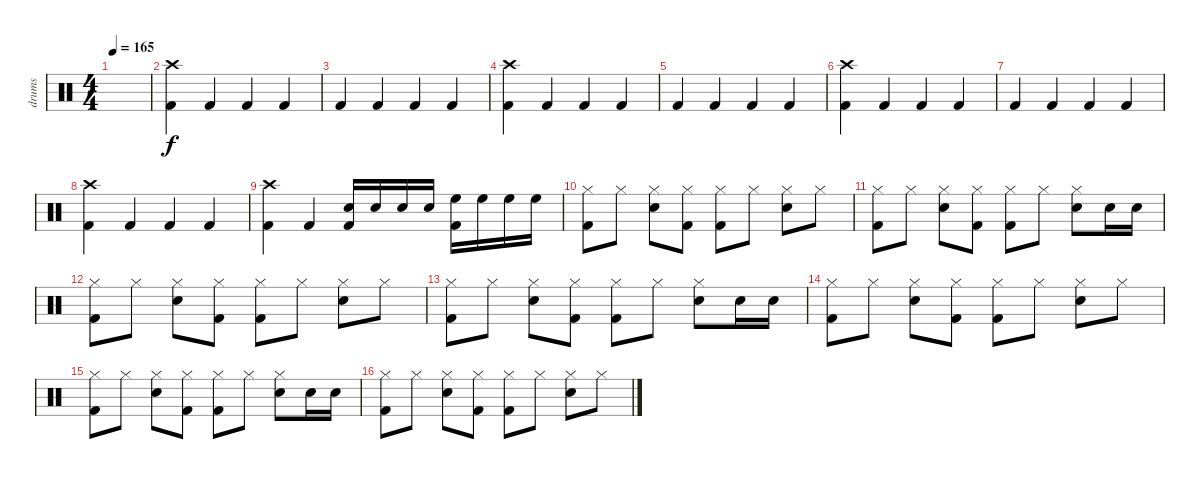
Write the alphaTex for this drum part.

\track ("drums" "drums") {instrument percussion}
\staff {score}
\articulation defaults
\ts (4 4)
\section ("" "")
\tempo 165
\clef neutral
\ks c
|
\section ("" "")
("Crash high (hit)" "Kick (hit) 2").4 "Kick (hit) 2".4 "Kick (hit) 2".4 "Kick (hit) 2".4 |
"Kick (hit) 2".4 "Kick (hit) 2".4 "Kick (hit) 2".4 "Kick (hit) 2".4 |
("Crash high (hit)" "Kick (hit) 2").4 "Kick (hit) 2".4 "Kick (hit) 2".4 "Kick (hit) 2".4 |
"Kick (hit) 2".4 "Kick (hit) 2".4 "Kick (hit) 2".4 "Kick (hit) 2".4 |
("Crash high (hit)" "Kick (hit) 2").4 "Kick (hit) 2".4 "Kick (hit) 2".4 "Kick (hit) 2".4 |
"Kick (hit) 2".4 "Kick (hit) 2".4 "Kick (hit) 2".4 "Kick (hit) 2".4 |
("Crash high (hit)" "Kick (hit) 2").4 "Kick (hit) 2".4 "Kick (hit) 2".4 "Kick (hit) 2".4 |
("Crash high (hit)" "Kick (hit) 2").4 "Kick (hit) 2".4 ("Snare (hit) 2" "Kick (hit) 2").16 "Snare (hit) 2".16 "Snare (hit) 2".16 "Snare (hit) 2".16 ("High Floor Tom (hit)" "Kick (hit) 2").16 "High Floor Tom (hit)".16 "High Floor Tom (hit)".16 "High Floor Tom (hit)".16 |
("Hi-Hat (closed)" "Kick (hit) 2").8 "Hi-Hat (closed)".8 ("Snare (hit) 2" "Hi-Hat (closed)").8 ("Hi-Hat (closed)" "Kick (hit) 2").8 ("Hi-Hat (closed)" "Kick (hit) 2").8 "Hi-Hat (closed)".8 ("Snare (hit) 2" "Hi-Hat (closed)").8 "Hi-Hat (closed)".8 |
("Hi-Hat (closed)" "Kick (hit) 2").8 "Hi-Hat (closed)".8 ("Snare (hit) 2" "Hi-Hat (closed)").8 ("Hi-Hat (closed)" "Kick (hit) 2").8 ("Hi-Hat (closed)" "Kick (hit) 2").8 "Hi-Hat (closed)".8 ("Snare (hit) 2" "Hi-Hat (closed)").8 "Snare (hit) 2".16 "Snare (hit) 2".16 |
("Hi-Hat (closed)" "Kick (hit) 2").8 "Hi-Hat (closed)".8 ("Snare (hit) 2" "Hi-Hat (closed)").8 ("Hi-Hat (closed)" "Kick (hit) 2").8 ("Hi-Hat (closed)" "Kick (hit) 2").8 "Hi-Hat (closed)".8 ("Snare (hit) 2" "Hi-Hat (closed)").8 "Hi-Hat (closed)".8 |
("Hi-Hat (closed)" "Kick (hit) 2").8 "Hi-Hat (closed)".8 ("Snare (hit) 2" "Hi-Hat (closed)").8 ("Hi-Hat (closed)" "Kick (hit) 2").8 ("Hi-Hat (closed)" "Kick (hit) 2").8 "Hi-Hat (closed)".8 ("Snare (hit) 2" "Hi-Hat (closed)").8 "Snare (hit) 2".16 "Snare (hit) 2".16 |
("Hi-Hat (closed)" "Kick (hit) 2").8 "Hi-Hat (closed)".8 ("Snare (hit) 2" "Hi-Hat (closed)").8 ("Hi-Hat (closed)" "Kick (hit) 2").8 ("Hi-Hat (closed)" "Kick (hit) 2").8 "Hi-Hat (closed)".8 ("Snare (hit) 2" "Hi-Hat (closed)").8 "Hi-Hat (closed)".8 |
("Hi-Hat (closed)" "Kick (hit) 2").8 "Hi-Hat (closed)".8 ("Snare (hit) 2" "Hi-Hat (closed)").8 ("Hi-Hat (closed)" "Kick (hit) 2").8 ("Hi-Hat (closed)" "Kick (hit) 2").8 "Hi-Hat (closed)".8 ("Snare (hit) 2" "Hi-Hat (closed)").8 "Snare (hit) 2".16 "Snare (hit) 2".16 |
("Hi-Hat (closed)" "Kick (hit) 2").8 "Hi-Hat (closed)".8 ("Snare (hit) 2" "Hi-Hat (closed)").8 ("Hi-Hat (closed)" "Kick (hit) 2").8 ("Hi-Hat (closed)" "Kick (hit) 2").8 "Hi-Hat (closed)".8 ("Snare (hit) 2" "Hi-Hat (closed)").8 "Hi-Hat (closed)".8
